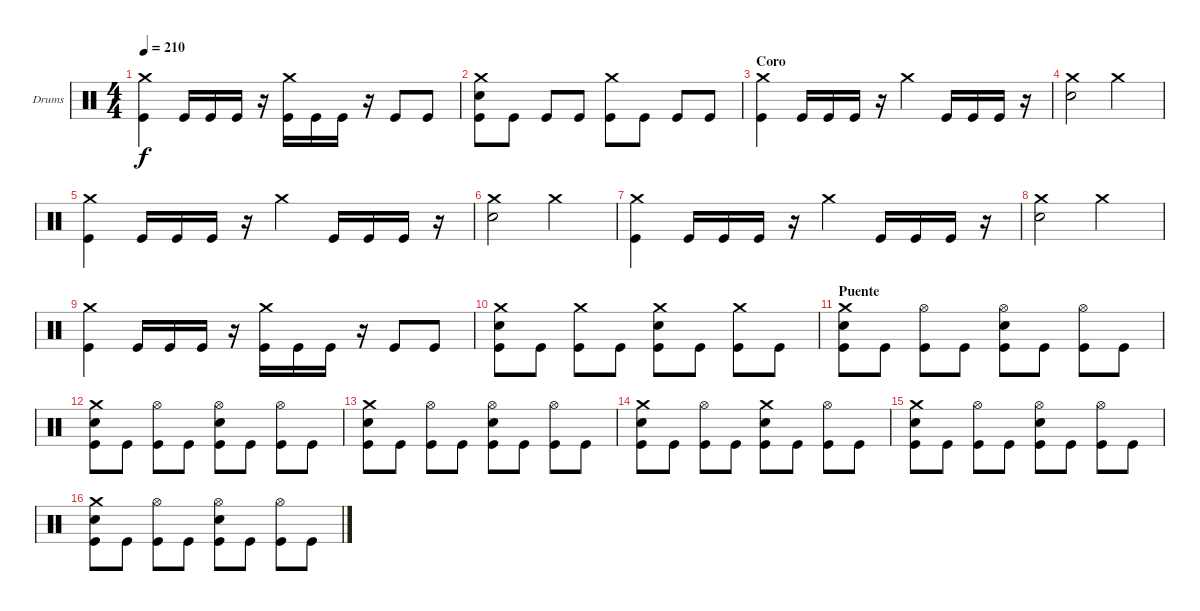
\bracketExtendMode groupsimilarinstruments
\firstSystemTrackNameOrientation horizontal
\otherSystemsTrackNameOrientation horizontal
\track ("Drumkit" "Drums") {instrument percussion}
\staff {score}
\articulation defaults
\ts (4 4)
\tempo 210
\clef neutral
\ks c
("Crash medium (hit)" "Kick (hit)").4{dy f} "Kick (hit)".16 "Kick (hit)".16 "Kick (hit)".16 r.16 ("Crash medium (hit)" "Kick (hit)").16 "Kick (hit)".16 "Kick (hit)".16 r.16 "Kick (hit)".8 "Kick (hit)".8 |
("Crash medium (hit)" "Snare (hit) 2" "Kick (hit)").8 "Kick (hit)".8 "Kick (hit)".8 "Kick (hit)".8 ("Crash medium (hit)" "Kick (hit)").8 "Kick (hit)".8 "Kick (hit)".8 "Kick (hit)".8 |
\section ("" "Coro")
("Crash medium (hit)" "Kick (hit)").4 "Kick (hit)".16 "Kick (hit)".16 "Kick (hit)".16 r.16 "Crash medium (hit)".4 "Kick (hit)".16 "Kick (hit)".16 "Kick (hit)".16 r.16 |
("Crash medium (hit)" "Snare (hit) 2").2 "Crash medium (hit)".2 |
("Crash medium (hit)" "Kick (hit)").4 "Kick (hit)".16 "Kick (hit)".16 "Kick (hit)".16 r.16 "Crash medium (hit)".4 "Kick (hit)".16 "Kick (hit)".16 "Kick (hit)".16 r.16 |
("Crash medium (hit)" "Snare (hit) 2").2 "Crash medium (hit)".2 |
("Crash medium (hit)" "Kick (hit)").4 "Kick (hit)".16 "Kick (hit)".16 "Kick (hit)".16 r.16 "Crash medium (hit)".4 "Kick (hit)".16 "Kick (hit)".16 "Kick (hit)".16 r.16 |
("Crash medium (hit)" "Snare (hit) 2").2 "Crash medium (hit)".2 |
("Crash medium (hit)" "Kick (hit)").4 "Kick (hit)".16 "Kick (hit)".16 "Kick (hit)".16 r.16 ("Crash medium (hit)" "Kick (hit)").16 "Kick (hit)".16 "Kick (hit)".16 r.16 "Kick (hit)".8 "Kick (hit)".8 |
("Crash medium (hit)" "Snare (hit) 2" "Kick (hit)").8 "Kick (hit)".8 ("Crash medium (hit)" "Kick (hit)").8 "Kick (hit)".8 ("Crash medium (hit)" "Snare (hit) 2" "Kick (hit)").8 "Kick (hit)".8 ("Crash medium (hit)" "Kick (hit)").8 "Kick (hit)".8 |
\section ("" "Puente")
("Crash medium (hit)" "Snare (hit) 2" "Kick (hit)").8 "Kick (hit)".8 ("Hi-Hat (open)" "Kick (hit)").8 "Kick (hit)".8 ("Hi-Hat (open)" "Snare (hit) 2" "Kick (hit)").8 "Kick (hit)".8 ("Hi-Hat (open)" "Kick (hit)").8 "Kick (hit)".8 |
("Crash medium (hit)" "Snare (hit) 2" "Kick (hit)").8 "Kick (hit)".8 ("Hi-Hat (open)" "Kick (hit)").8 "Kick (hit)".8 ("Hi-Hat (open)" "Snare (hit) 2" "Kick (hit)").8 "Kick (hit)".8 ("Hi-Hat (open)" "Kick (hit)").8 "Kick (hit)".8 |
("Crash medium (hit)" "Snare (hit) 2" "Kick (hit)").8 "Kick (hit)".8 ("Hi-Hat (open)" "Kick (hit)").8 "Kick (hit)".8 ("Hi-Hat (open)" "Snare (hit) 2" "Kick (hit)").8 "Kick (hit)".8 ("Hi-Hat (open)" "Kick (hit)").8 "Kick (hit)".8 |
("Crash medium (hit)" "Snare (hit) 2" "Kick (hit)").8 "Kick (hit)".8 ("Hi-Hat (open)" "Kick (hit)").8 "Kick (hit)".8 ("Crash medium (hit)" "Snare (hit) 2" "Kick (hit)").8 "Kick (hit)".8 ("Hi-Hat (open)" "Kick (hit)").8 "Kick (hit)".8 |
("Crash medium (hit)" "Snare (hit) 2" "Kick (hit)").8 "Kick (hit)".8 ("Hi-Hat (open)" "Kick (hit)").8 "Kick (hit)".8 ("Hi-Hat (open)" "Snare (hit) 2" "Kick (hit)").8 "Kick (hit)".8 ("Hi-Hat (open)" "Kick (hit)").8 "Kick (hit)".8 |
("Crash medium (hit)" "Snare (hit) 2" "Kick (hit)").8 "Kick (hit)".8 ("Hi-Hat (open)" "Kick (hit)").8 "Kick (hit)".8 ("Hi-Hat (open)" "Snare (hit) 2" "Kick (hit)").8 "Kick (hit)".8 ("Hi-Hat (open)" "Kick (hit)").8 "Kick (hit)".8
